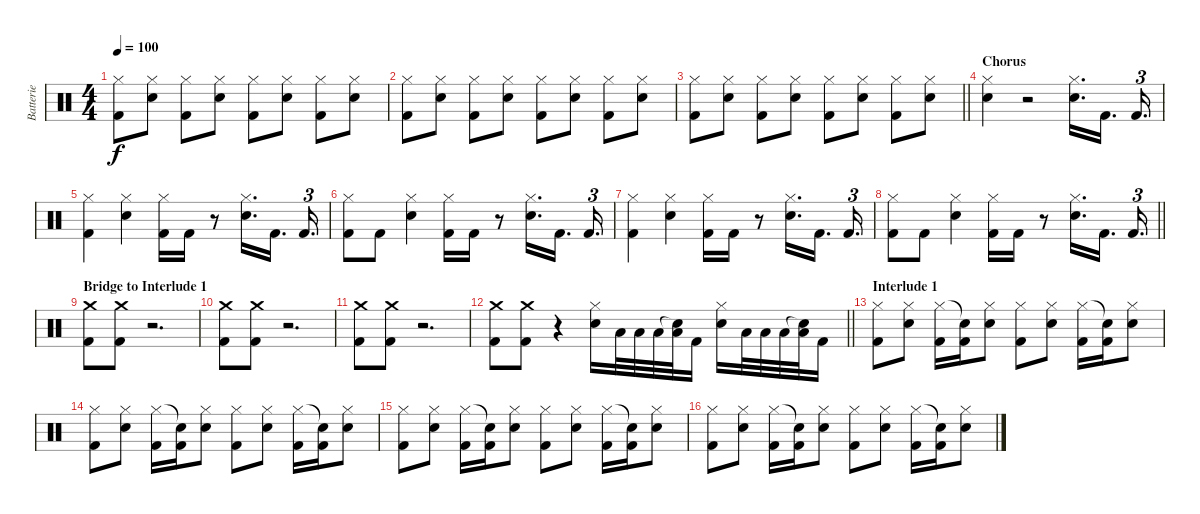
\track ("Batterie" "Batterie") {instrument percussion}
\staff {score}
\articulation defaults
\ts (4 4)
\tempo 100
\clef neutral
\ks c
("Kick (hit) 2" "Hi-Hat (closed)").8{dy f} ("Electric Snare (hit)" "Hi-Hat (closed)").8 ("Kick (hit) 2" "Hi-Hat (closed)").8 ("Electric Snare (hit)" "Hi-Hat (closed)").8 ("Kick (hit) 2" "Hi-Hat (closed)").8 ("Electric Snare (hit)" "Hi-Hat (closed)").8 ("Kick (hit) 2" "Hi-Hat (closed)").8 ("Electric Snare (hit)" "Hi-Hat (closed)").8 |
("Kick (hit) 2" "Hi-Hat (closed)").8 ("Electric Snare (hit)" "Hi-Hat (closed)").8 ("Kick (hit) 2" "Hi-Hat (closed)").8 ("Electric Snare (hit)" "Hi-Hat (closed)").8 ("Kick (hit) 2" "Hi-Hat (closed)").8 ("Electric Snare (hit)" "Hi-Hat (closed)").8 ("Kick (hit) 2" "Hi-Hat (closed)").8 ("Electric Snare (hit)" "Hi-Hat (closed)").8 |
\barLineRight lightlight
("Kick (hit) 2" "Hi-Hat (closed)").8 ("Electric Snare (hit)" "Hi-Hat (closed)").8 ("Kick (hit) 2" "Hi-Hat (closed)").8 ("Electric Snare (hit)" "Hi-Hat (closed)").8 ("Kick (hit) 2" "Hi-Hat (closed)").8 ("Electric Snare (hit)" "Hi-Hat (closed)").8 ("Kick (hit) 2" "Hi-Hat (closed)").8 ("Electric Snare (hit)" "Hi-Hat (closed)").8 |
\section ("" "Chorus")
("Electric Snare (hit)" "Hi-Hat (closed)").4 r.2 ("Electric Snare (hit)" "Hi-Hat (closed)").16{d} "Kick (hit) 2".16{d} "Kick (hit) 2".16{d tu (3 2)} |
("Kick (hit) 2" "Hi-Hat (closed)").4 ("Electric Snare (hit)" "Hi-Hat (closed)").4 ("Kick (hit) 2" "Hi-Hat (closed)").16 "Kick (hit) 2".16 r.8 ("Electric Snare (hit)" "Hi-Hat (closed)").16{d} "Kick (hit) 2".16{d} "Kick (hit) 2".16{d tu (3 2)} |
("Kick (hit) 2" "Hi-Hat (closed)").8 "Kick (hit) 2".8 ("Electric Snare (hit)" "Hi-Hat (closed)").4 ("Kick (hit) 2" "Hi-Hat (closed)").16 "Kick (hit) 2".16 r.8 ("Electric Snare (hit)" "Hi-Hat (closed)").16{d} "Kick (hit) 2".16{d} "Kick (hit) 2".16{d tu (3 2)} |
("Kick (hit) 2" "Hi-Hat (closed)").4 ("Electric Snare (hit)" "Hi-Hat (closed)").4 ("Kick (hit) 2" "Hi-Hat (closed)").16 "Kick (hit) 2".16 r.8 ("Electric Snare (hit)" "Hi-Hat (closed)").16{d} "Kick (hit) 2".16{d} "Kick (hit) 2".16{d tu (3 2)} |
\barLineRight lightlight
("Kick (hit) 2" "Hi-Hat (closed)").8 "Kick (hit) 2".8 ("Electric Snare (hit)" "Hi-Hat (closed)").4 ("Kick (hit) 2" "Hi-Hat (closed)").16 "Kick (hit) 2".16 r.8 ("Electric Snare (hit)" "Hi-Hat (closed)").16{d} "Kick (hit) 2".16{d} "Kick (hit) 2".16{d tu (3 2)} |
\section ("" "Bridge to Interlude 1")
("Kick (hit) 2" "Crash medium (hit)").8 ("Kick (hit) 2" "Crash medium (hit)").8 r.2{d} |
("Kick (hit) 2" "Crash medium (hit)").8 ("Kick (hit) 2" "Crash medium (hit)").8 r.2{d} |
("Kick (hit) 2" "Crash medium (hit)").8 ("Kick (hit) 2" "Crash medium (hit)").8 r.2{d} |
\barLineRight lightlight
("Kick (hit) 2" "Crash medium (hit)").8 ("Kick (hit) 2" "Crash medium (hit)").8 r.4 ("Electric Snare (hit)" "Hi-Hat (closed)").16 "Low Tom (hit)".32 "Low Tom (hit)".32 "Low Tom (hit)".32 ("Snare (hit)"{t} "Low Tom (hit)").32 "Kick (hit) 2".16 ("Electric Snare (hit)" "Hi-Hat (closed)").16 "Low Tom (hit)".32 "Low Tom (hit)".32 "Low Tom (hit)".32 ("Snare (hit)"{t} "Low Tom (hit)").32 "Kick (hit) 2".16 |
\section ("" "Interlude 1")
("Kick (hit) 2" "Hi-Hat (closed)").8 ("Electric Snare (hit)" "Hi-Hat (closed)").8 ("Kick (hit) 2" "Hi-Hat (closed)").16 ("Kick (hit) 2" "Snare (hit)"{t}).16 ("Electric Snare (hit)" "Hi-Hat (closed)").8 ("Kick (hit) 2" "Hi-Hat (closed)").8 ("Electric Snare (hit)" "Hi-Hat (closed)").8 ("Kick (hit) 2" "Hi-Hat (closed)").16 ("Kick (hit) 2" "Snare (hit)"{t}).16 ("Electric Snare (hit)" "Hi-Hat (closed)").8 |
("Kick (hit) 2" "Hi-Hat (closed)").8 ("Electric Snare (hit)" "Hi-Hat (closed)").8 ("Kick (hit) 2" "Hi-Hat (closed)").16 ("Kick (hit) 2" "Snare (hit)"{t}).16 ("Electric Snare (hit)" "Hi-Hat (closed)").8 ("Kick (hit) 2" "Hi-Hat (closed)").8 ("Electric Snare (hit)" "Hi-Hat (closed)").8 ("Kick (hit) 2" "Hi-Hat (closed)").16 ("Kick (hit) 2" "Snare (hit)"{t}).16 ("Electric Snare (hit)" "Hi-Hat (closed)").8 |
("Kick (hit) 2" "Hi-Hat (closed)").8 ("Electric Snare (hit)" "Hi-Hat (closed)").8 ("Kick (hit) 2" "Hi-Hat (closed)").16 ("Kick (hit) 2" "Snare (hit)"{t}).16 ("Electric Snare (hit)" "Hi-Hat (closed)").8 ("Kick (hit) 2" "Hi-Hat (closed)").8 ("Electric Snare (hit)" "Hi-Hat (closed)").8 ("Kick (hit) 2" "Hi-Hat (closed)").16 ("Kick (hit) 2" "Snare (hit)"{t}).16 ("Electric Snare (hit)" "Hi-Hat (closed)").8 |
("Kick (hit) 2" "Hi-Hat (closed)").8 ("Electric Snare (hit)" "Hi-Hat (closed)").8 ("Kick (hit) 2" "Hi-Hat (closed)").16 ("Kick (hit) 2" "Snare (hit)"{t}).16 ("Electric Snare (hit)" "Hi-Hat (closed)").8 ("Kick (hit) 2" "Hi-Hat (closed)").8 ("Electric Snare (hit)" "Hi-Hat (closed)").8 ("Kick (hit) 2" "Hi-Hat (closed)").16 ("Kick (hit) 2" "Snare (hit)"{t}).16 ("Electric Snare (hit)" "Hi-Hat (closed)").8
